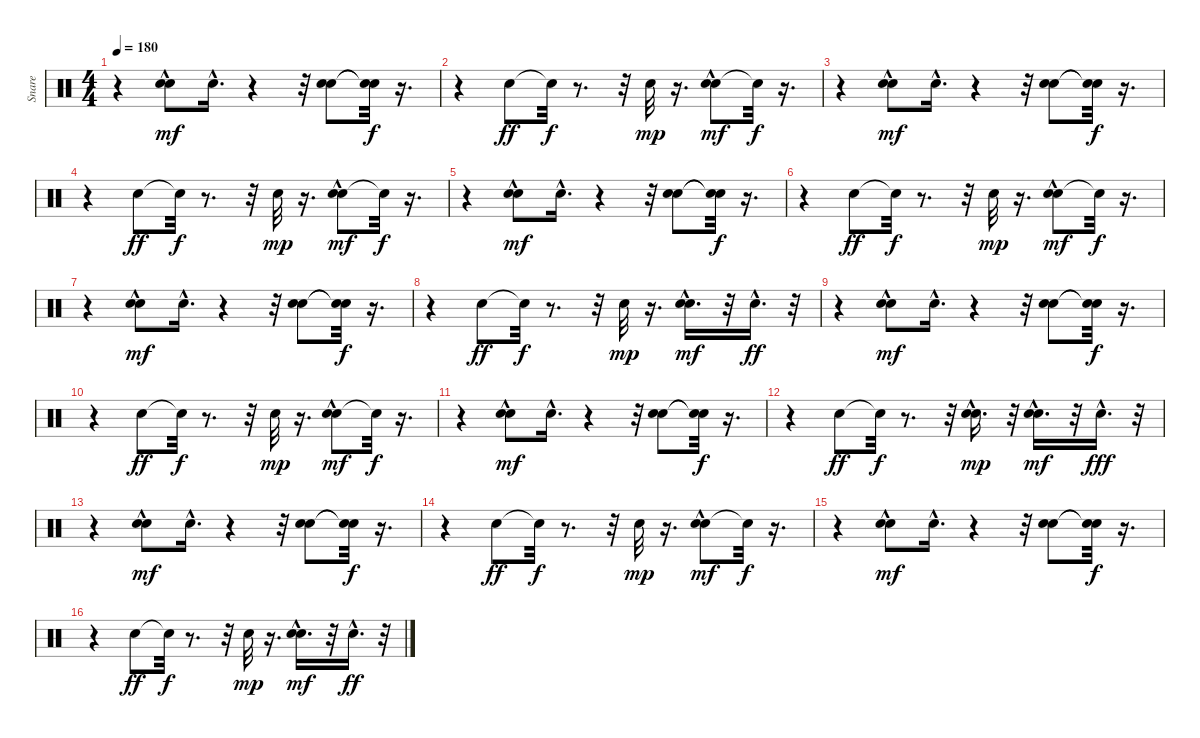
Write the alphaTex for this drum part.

\track ("Snare" "Snare") {instrument percussion}
\staff {score}
\articulation defaults
\ts (4 4)
\tempo 180
\clef neutral
\ks c
r.4{dy ff} ("Snare (hit) 2" "Hand Clap (hit)"{hac}).8{dy mf} "Hand Clap (hit)"{hac}.16{d} r.4 r.32 ("Snare (hit) 2" "Hand Clap (hit)").8 ("Snare (hit)"{t} "Snare (hit)"{t}).32{dy f} r.16{d} |
r.4 "Snare (hit) 2".8{dy ff} "Snare (hit)"{t}.32{dy f} r.8{d} r.32 "Hand Clap (hit)".32{dy mp} r.16{d} ("Snare (hit) 2" "Hand Clap (hit)"{hac}).8{dy mf} "Snare (hit)"{t}.32{dy f} r.16{d} |
r.4 ("Snare (hit) 2" "Hand Clap (hit)"{hac}).8{dy mf} "Hand Clap (hit)"{hac}.16{d} r.4 r.32 ("Snare (hit) 2" "Hand Clap (hit)").8 ("Snare (hit)"{t} "Snare (hit)"{t}).32{dy f} r.16{d} |
r.4 "Snare (hit) 2".8{dy ff} "Snare (hit)"{t}.32{dy f} r.8{d} r.32 "Hand Clap (hit)".32{dy mp} r.16{d} ("Snare (hit) 2" "Hand Clap (hit)"{hac}).8{dy mf} "Snare (hit)"{t}.32{dy f} r.16{d} |
r.4 ("Snare (hit) 2" "Hand Clap (hit)"{hac}).8{dy mf} "Hand Clap (hit)"{hac}.16{d} r.4 r.32 ("Snare (hit) 2" "Hand Clap (hit)").8 ("Snare (hit)"{t} "Snare (hit)"{t}).32{dy f} r.16{d} |
r.4 "Snare (hit) 2".8{dy ff} "Snare (hit)"{t}.32{dy f} r.8{d} r.32 "Hand Clap (hit)".32{dy mp} r.16{d} ("Snare (hit) 2" "Hand Clap (hit)"{hac}).8{dy mf} "Snare (hit)"{t}.32{dy f} r.16{d} |
r.4 ("Snare (hit) 2" "Hand Clap (hit)"{hac}).8{dy mf} "Hand Clap (hit)"{hac}.16{d} r.4 r.32 ("Snare (hit) 2" "Hand Clap (hit)").8 ("Snare (hit)"{t} "Snare (hit)"{t}).32{dy f} r.16{d} |
r.4 "Snare (hit) 2".8{dy ff} "Snare (hit)"{t}.32{dy f} r.8{d} r.32 "Hand Clap (hit)".32{dy mp} r.16{d} ("Snare (hit) 2"{hac} "Hand Clap (hit)"{hac}).16{d dy mf} r.32 "Snare (hit) 2"{hac}.16{d dy ff} r.32 |
r.4 ("Snare (hit) 2" "Hand Clap (hit)"{hac}).8{dy mf} "Hand Clap (hit)"{hac}.16{d} r.4 r.32 ("Snare (hit) 2" "Hand Clap (hit)").8 ("Snare (hit)"{t} "Snare (hit)"{t}).32{dy f} r.16{d} |
r.4 "Snare (hit) 2".8{dy ff} "Snare (hit)"{t}.32{dy f} r.8{d} r.32 "Hand Clap (hit)".32{dy mp} r.16{d} ("Snare (hit) 2" "Hand Clap (hit)"{hac}).8{dy mf} "Snare (hit)"{t}.32{dy f} r.16{d} |
r.4 ("Snare (hit) 2" "Hand Clap (hit)"{hac}).8{dy mf} "Hand Clap (hit)"{hac}.16{d} r.4 r.32 ("Snare (hit) 2" "Hand Clap (hit)").8 ("Snare (hit)"{t} "Snare (hit)"{t}).32{dy f} r.16{d} |
r.4 "Snare (hit) 2".8{dy ff} "Snare (hit)"{t}.32{dy f} r.8{d} r.32 ("Snare (hit) 2"{hac} "Hand Clap (hit)").16{d dy mp} r.32 ("Snare (hit) 2"{hac} "Hand Clap (hit)"{hac}).16{d dy mf} r.32 "Snare (hit) 2"{hac}.16{d dy fff} r.32 |
r.4 ("Snare (hit) 2" "Hand Clap (hit)"{hac}).8{dy mf} "Hand Clap (hit)"{hac}.16{d} r.4 r.32 ("Snare (hit) 2" "Hand Clap (hit)").8 ("Snare (hit)"{t} "Snare (hit)"{t}).32{dy f} r.16{d} |
r.4 "Snare (hit) 2".8{dy ff} "Snare (hit)"{t}.32{dy f} r.8{d} r.32 "Hand Clap (hit)".32{dy mp} r.16{d} ("Snare (hit) 2" "Hand Clap (hit)"{hac}).8{dy mf} "Snare (hit)"{t}.32{dy f} r.16{d} |
r.4 ("Snare (hit) 2" "Hand Clap (hit)"{hac}).8{dy mf} "Hand Clap (hit)"{hac}.16{d} r.4 r.32 ("Snare (hit) 2" "Hand Clap (hit)").8 ("Snare (hit)"{t} "Snare (hit)"{t}).32{dy f} r.16{d} |
r.4 "Snare (hit) 2".8{dy ff} "Snare (hit)"{t}.32{dy f} r.8{d} r.32 "Hand Clap (hit)".32{dy mp} r.16{d} ("Snare (hit) 2"{hac} "Hand Clap (hit)"{hac}).16{d dy mf} r.32 "Snare (hit) 2"{hac}.16{d dy ff} r.32
